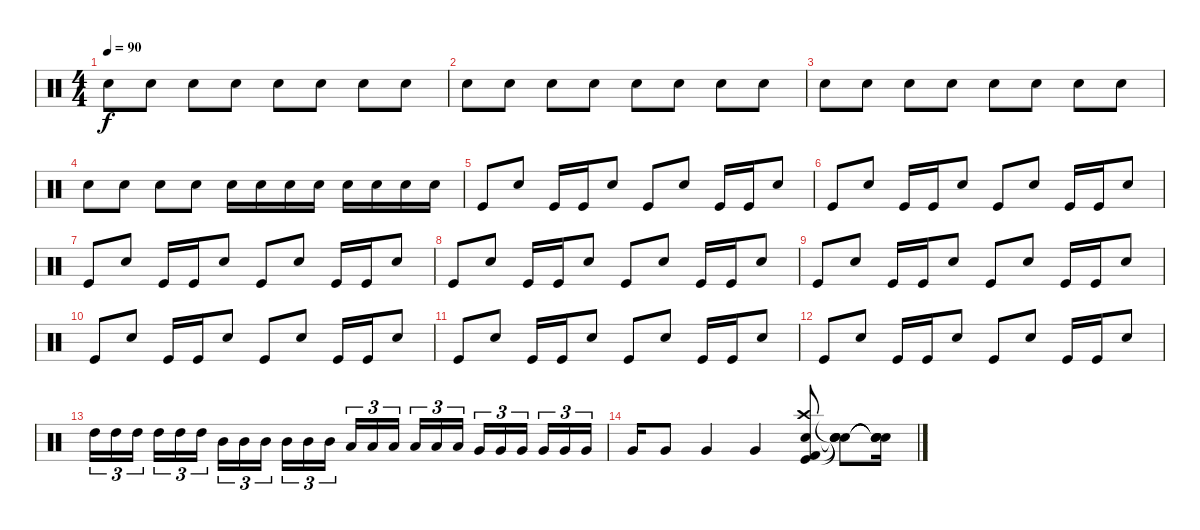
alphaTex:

\track "" {instrument percussion}
\staff {score}
\articulation defaults
\ts (4 4)
\tempo 90
\clef neutral
\ks c "Snare (hit) 2".8{dy f} "Snare (hit) 2".8 "Snare (hit) 2".8 "Snare (hit) 2".8 "Snare (hit) 2".8 "Snare (hit) 2".8 "Snare (hit) 2".8 "Snare (hit) 2".8
|
"Snare (hit) 2".8 "Snare (hit) 2".8 "Snare (hit) 2".8 "Snare (hit) 2".8 "Snare (hit) 2".8 "Snare (hit) 2".8 "Snare (hit) 2".8 "Snare (hit) 2".8 |
"Snare (hit) 2".8 "Snare (hit) 2".8 "Snare (hit) 2".8 "Snare (hit) 2".8 "Snare (hit) 2".8 "Snare (hit) 2".8 "Snare (hit) 2".8 "Snare (hit) 2".8 |
"Snare (hit) 2".8 "Snare (hit) 2".8 "Snare (hit) 2".8 "Snare (hit) 2".8 "Snare (hit) 2".16 "Snare (hit) 2".16 "Snare (hit) 2".16 "Snare (hit) 2".16 "Snare (hit) 2".16 "Snare (hit) 2".16 "Snare (hit) 2".16 "Snare (hit) 2".16 |
"Kick (hit)".8 "Snare (hit) 2".8 "Kick (hit)".16 "Kick (hit)".16 "Snare (hit) 2".8 "Kick (hit)".8 "Snare (hit) 2".8 "Kick (hit)".16 "Kick (hit)".16 "Snare (hit) 2".8 |
"Kick (hit)".8 "Snare (hit) 2".8 "Kick (hit)".16 "Kick (hit)".16 "Snare (hit) 2".8 "Kick (hit)".8 "Snare (hit) 2".8 "Kick (hit)".16 "Kick (hit)".16 "Snare (hit) 2".8 |
"Kick (hit)".8 "Snare (hit) 2".8 "Kick (hit)".16 "Kick (hit)".16 "Snare (hit) 2".8 "Kick (hit)".8 "Snare (hit) 2".8 "Kick (hit)".16 "Kick (hit)".16 "Snare (hit) 2".8 |
"Kick (hit)".8 "Snare (hit) 2".8 "Kick (hit)".16 "Kick (hit)".16 "Snare (hit) 2".8 "Kick (hit)".8 "Snare (hit) 2".8 "Kick (hit)".16 "Kick (hit)".16 "Snare (hit) 2".8 |
"Kick (hit)".8 "Snare (hit) 2".8 "Kick (hit)".16 "Kick (hit)".16 "Snare (hit) 2".8 "Kick (hit)".8 "Snare (hit) 2".8 "Kick (hit)".16 "Kick (hit)".16 "Snare (hit) 2".8 |
"Kick (hit)".8 "Snare (hit) 2".8 "Kick (hit)".16 "Kick (hit)".16 "Snare (hit) 2".8 "Kick (hit)".8 "Snare (hit) 2".8 "Kick (hit)".16 "Kick (hit)".16 "Snare (hit) 2".8 |
"Kick (hit)".8 "Snare (hit) 2".8 "Kick (hit)".16 "Kick (hit)".16 "Snare (hit) 2".8 "Kick (hit)".8 "Snare (hit) 2".8 "Kick (hit)".16 "Kick (hit)".16 "Snare (hit) 2".8 |
"Kick (hit)".8 "Snare (hit) 2".8 "Kick (hit)".16 "Kick (hit)".16 "Snare (hit) 2".8 "Kick (hit)".8 "Snare (hit) 2".8 "Kick (hit)".16 "Kick (hit)".16 "Snare (hit) 2".8 |
"High Tom (hit)".16{tu (3 2)} "High Tom (hit)".16{tu (3 2)} "High Tom (hit)".16{tu (3 2)} "High Tom (hit)".16{tu (3 2)} "High Tom (hit)".16{tu (3 2)} "High Tom (hit)".16{tu (3 2)} "Mid Tom (hit)".16{tu (3 2)} "Mid Tom (hit)".16{tu (3 2)} "Mid Tom (hit)".16{tu (3 2)} "Mid Tom (hit)".16{tu (3 2)} "Mid Tom (hit)".16{tu (3 2)} "Mid Tom (hit)".16{tu (3 2)} "Low Tom (hit)".16{tu (3 2)} "Low Tom (hit)".16{tu (3 2)} "Low Tom (hit)".16{tu (3 2)} "Low Tom (hit)".16{tu (3 2)} "Low Tom (hit)".16{tu (3 2)} "Low Tom (hit)".16{tu (3 2)} "Very Low Tom (hit)".16{tu (3 2)} "Very Low Tom (hit)".16{tu (3 2)} "Very Low Tom (hit)".16{tu (3 2)} "Very Low Tom (hit)".16{tu (3 2)} "Very Low Tom (hit)".16{tu (3 2)} "Very Low Tom (hit)".16{tu (3 2)} |
"Very Low Tom (hit)".16 "Very Low Tom (hit)".8 "Very Low Tom (hit)".4 "Very Low Tom (hit)".4 ("Crash high (hit)" "Snare (hit) 2" "Kick (hit) 2" "Kick (hit)").8 ("Snare (hit)"{t} "Snare (hit)"{t} "Snare (hit)"{t} "Snare (hit)"{t}).8 ("Snare (hit)"{t} "Snare (hit)"{t} "Snare (hit)"{t} "Snare (hit)"{t}).16
